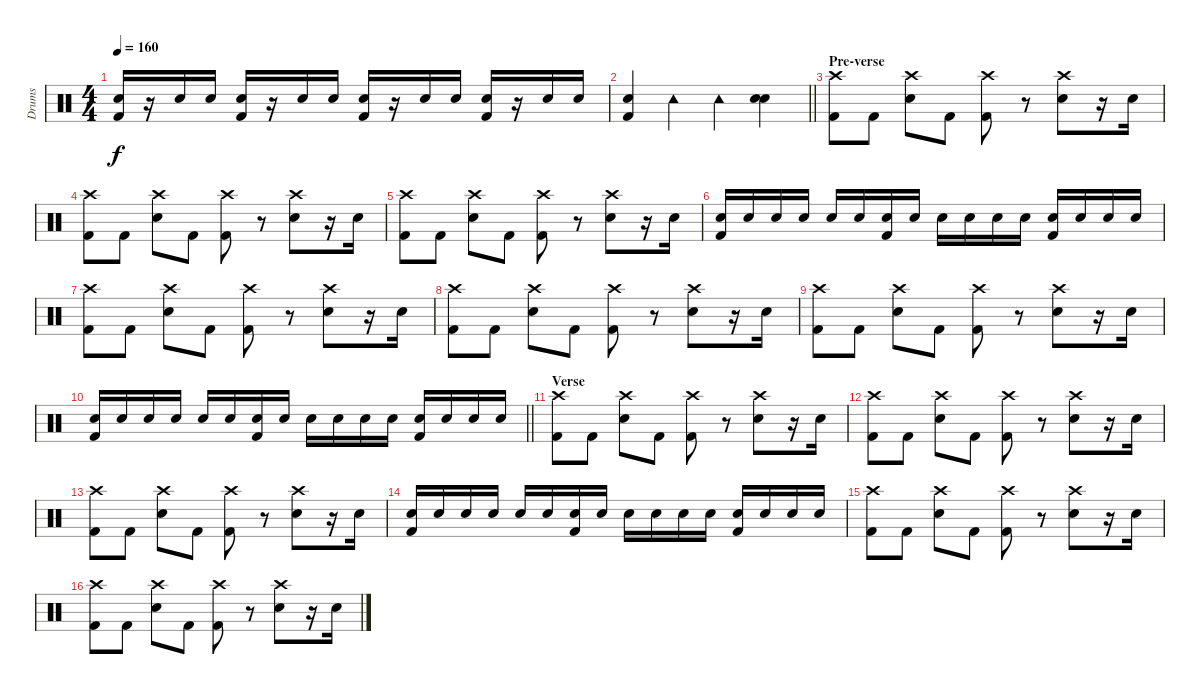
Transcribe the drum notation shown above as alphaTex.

\track ("Drums" "Drums") {instrument percussion}
\staff {score}
\articulation defaults
\ts (4 4)
\tempo 160
\clef neutral
\ks c
("Snare (hit) 2" "Kick (hit) 2").16{dy f} r.16 "Snare (hit) 2".16 "Snare (hit) 2".16 ("Snare (hit) 2" "Kick (hit) 2").16 r.16 "Snare (hit) 2".16 "Snare (hit) 2".16 ("Snare (hit) 2" "Kick (hit) 2").16 r.16 "Snare (hit) 2".16 "Snare (hit) 2".16 ("Snare (hit) 2" "Kick (hit) 2").16 r.16 "Snare (hit) 2".16 "Snare (hit) 2".16 |
\barLineRight lightlight
("Snare (hit) 2" "Kick (hit) 2").4 "Tambourine (hit)".4 "Tambourine (hit)".4 ("Snare (hit) 2" "Snare (hit) 2").4 |
\section ("" "Pre-verse")
("Crash high (hit)" "Kick (hit) 2").8 "Kick (hit) 2".8 ("Crash high (hit)" "Snare (hit) 2").8 "Kick (hit) 2".8 ("Crash high (hit)" "Kick (hit) 2").8 r.8 ("Crash high (hit)" "Snare (hit) 2").8 r.16 "Snare (hit) 2".16 |
("Crash high (hit)" "Kick (hit) 2").8 "Kick (hit) 2".8 ("Crash high (hit)" "Snare (hit) 2").8 "Kick (hit) 2".8 ("Crash high (hit)" "Kick (hit) 2").8 r.8 ("Crash high (hit)" "Snare (hit) 2").8 r.16 "Snare (hit) 2".16 |
("Crash high (hit)" "Kick (hit) 2").8 "Kick (hit) 2".8 ("Crash high (hit)" "Snare (hit) 2").8 "Kick (hit) 2".8 ("Crash high (hit)" "Kick (hit) 2").8 r.8 ("Crash high (hit)" "Snare (hit) 2").8 r.16 "Snare (hit) 2".16 |
("Snare (hit) 2" "Kick (hit) 2").16 "Snare (hit) 2".16 "Snare (hit) 2".16 "Snare (hit) 2".16 "Snare (hit) 2".16 "Snare (hit) 2".16 ("Snare (hit) 2" "Kick (hit) 2").16 "Snare (hit) 2".16 "Snare (hit) 2".16 "Snare (hit) 2".16 "Snare (hit) 2".16 "Snare (hit) 2".16 ("Snare (hit) 2" "Kick (hit) 2").16 "Snare (hit) 2".16 "Snare (hit) 2".16 "Snare (hit) 2".16 |
("Crash high (hit)" "Kick (hit) 2").8 "Kick (hit) 2".8 ("Crash high (hit)" "Snare (hit) 2").8 "Kick (hit) 2".8 ("Crash high (hit)" "Kick (hit) 2").8 r.8 ("Crash high (hit)" "Snare (hit) 2").8 r.16 "Snare (hit) 2".16 |
("Crash high (hit)" "Kick (hit) 2").8 "Kick (hit) 2".8 ("Crash high (hit)" "Snare (hit) 2").8 "Kick (hit) 2".8 ("Crash high (hit)" "Kick (hit) 2").8 r.8 ("Crash high (hit)" "Snare (hit) 2").8 r.16 "Snare (hit) 2".16 |
("Crash high (hit)" "Kick (hit) 2").8 "Kick (hit) 2".8 ("Crash high (hit)" "Snare (hit) 2").8 "Kick (hit) 2".8 ("Crash high (hit)" "Kick (hit) 2").8 r.8 ("Crash high (hit)" "Snare (hit) 2").8 r.16 "Snare (hit) 2".16 |
\barLineRight lightlight
("Snare (hit) 2" "Kick (hit) 2").16 "Snare (hit) 2".16 "Snare (hit) 2".16 "Snare (hit) 2".16 "Snare (hit) 2".16 "Snare (hit) 2".16 ("Snare (hit) 2" "Kick (hit) 2").16 "Snare (hit) 2".16 "Snare (hit) 2".16 "Snare (hit) 2".16 "Snare (hit) 2".16 "Snare (hit) 2".16 ("Snare (hit) 2" "Kick (hit) 2").16 "Snare (hit) 2".16 "Snare (hit) 2".16 "Snare (hit) 2".16 |
\section ("" "Verse")
("Crash high (hit)" "Kick (hit) 2").8 "Kick (hit) 2".8 ("Crash high (hit)" "Snare (hit) 2").8 "Kick (hit) 2".8 ("Crash high (hit)" "Kick (hit) 2").8 r.8 ("Crash high (hit)" "Snare (hit) 2").8 r.16 "Snare (hit) 2".16 |
("Crash high (hit)" "Kick (hit) 2").8 "Kick (hit) 2".8 ("Crash high (hit)" "Snare (hit) 2").8 "Kick (hit) 2".8 ("Crash high (hit)" "Kick (hit) 2").8 r.8 ("Crash high (hit)" "Snare (hit) 2").8 r.16 "Snare (hit) 2".16 |
("Crash high (hit)" "Kick (hit) 2").8 "Kick (hit) 2".8 ("Crash high (hit)" "Snare (hit) 2").8 "Kick (hit) 2".8 ("Crash high (hit)" "Kick (hit) 2").8 r.8 ("Crash high (hit)" "Snare (hit) 2").8 r.16 "Snare (hit) 2".16 |
("Snare (hit) 2" "Kick (hit) 2").16 "Snare (hit) 2".16 "Snare (hit) 2".16 "Snare (hit) 2".16 "Snare (hit) 2".16 "Snare (hit) 2".16 ("Snare (hit) 2" "Kick (hit) 2").16 "Snare (hit) 2".16 "Snare (hit) 2".16 "Snare (hit) 2".16 "Snare (hit) 2".16 "Snare (hit) 2".16 ("Snare (hit) 2" "Kick (hit) 2").16 "Snare (hit) 2".16 "Snare (hit) 2".16 "Snare (hit) 2".16 |
("Crash high (hit)" "Kick (hit) 2").8 "Kick (hit) 2".8 ("Crash high (hit)" "Snare (hit) 2").8 "Kick (hit) 2".8 ("Crash high (hit)" "Kick (hit) 2").8 r.8 ("Crash high (hit)" "Snare (hit) 2").8 r.16 "Snare (hit) 2".16 |
("Crash high (hit)" "Kick (hit) 2").8 "Kick (hit) 2".8 ("Crash high (hit)" "Snare (hit) 2").8 "Kick (hit) 2".8 ("Crash high (hit)" "Kick (hit) 2").8 r.8 ("Crash high (hit)" "Snare (hit) 2").8 r.16 "Snare (hit) 2".16
